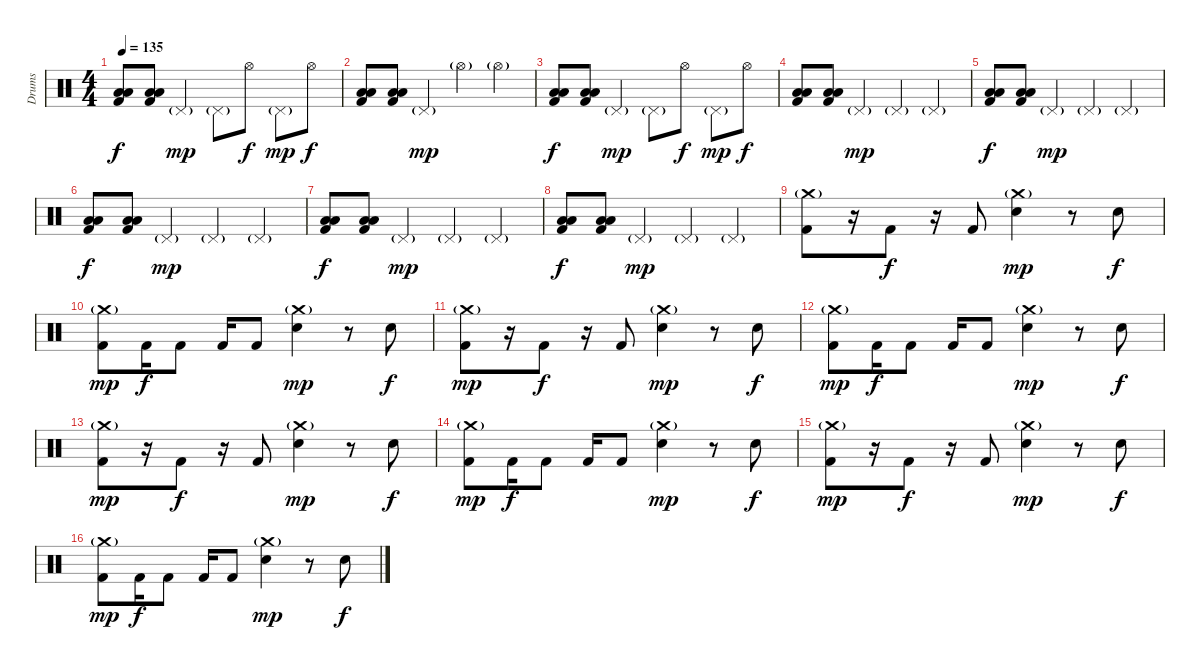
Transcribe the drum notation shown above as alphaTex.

\track ("Drums" "Drums") {instrument percussion}
\staff {score}
\articulation defaults
\ts (4 4)
\tempo 135
\clef neutral
\ks c
("Low Tom (hit)" "Low Floor Tom (hit)" "Kick (hit) 2").8{dy f} ("Low Tom (hit)" "Low Floor Tom (hit)" "Kick (hit) 2").8 "Pedal Hi-Hat (hit)"{g}.4{dy mp} "Pedal Hi-Hat (hit)"{g}.8 "Hi-Hat (open)".8{dy f} "Pedal Hi-Hat (hit)"{g}.8{dy mp} "Hi-Hat (open)".8{dy f} |
("Low Tom (hit)" "Low Floor Tom (hit)" "Kick (hit) 2").8 ("Low Tom (hit)" "Low Floor Tom (hit)" "Kick (hit) 2").8 "Pedal Hi-Hat (hit)"{g}.4{dy mp} "Hi-Hat (open)"{g}.4 "Hi-Hat (open)"{g}.4 |
("Low Tom (hit)" "Low Floor Tom (hit)" "Kick (hit) 2").8{dy f} ("Low Tom (hit)" "Low Floor Tom (hit)" "Kick (hit) 2").8 "Pedal Hi-Hat (hit)"{g}.4{dy mp} "Pedal Hi-Hat (hit)"{g}.8 "Hi-Hat (open)".8{dy f} "Pedal Hi-Hat (hit)"{g}.8{dy mp} "Hi-Hat (open)".8{dy f} |
("Low Tom (hit)" "Low Floor Tom (hit)" "Kick (hit) 2").8 ("Low Tom (hit)" "Low Floor Tom (hit)" "Kick (hit) 2").8 "Pedal Hi-Hat (hit)"{g}.4{dy mp} "Pedal Hi-Hat (hit)"{g}.4 "Pedal Hi-Hat (hit)"{g}.4 |
("Low Tom (hit)" "Low Floor Tom (hit)" "Kick (hit) 2").8{dy f} ("Low Tom (hit)" "Low Floor Tom (hit)" "Kick (hit) 2").8 "Pedal Hi-Hat (hit)"{g}.4{dy mp} "Pedal Hi-Hat (hit)"{g}.4 "Pedal Hi-Hat (hit)"{g}.4 |
("Low Tom (hit)" "Low Floor Tom (hit)" "Kick (hit) 2").8{dy f} ("Low Tom (hit)" "Low Floor Tom (hit)" "Kick (hit) 2").8 "Pedal Hi-Hat (hit)"{g}.4{dy mp} "Pedal Hi-Hat (hit)"{g}.4 "Pedal Hi-Hat (hit)"{g}.4 |
("Low Tom (hit)" "Low Floor Tom (hit)" "Kick (hit) 2").8{dy f} ("Low Tom (hit)" "Low Floor Tom (hit)" "Kick (hit) 2").8 "Pedal Hi-Hat (hit)"{g}.4{dy mp} "Pedal Hi-Hat (hit)"{g}.4 "Pedal Hi-Hat (hit)"{g}.4 |
("Low Tom (hit)" "Low Floor Tom (hit)" "Kick (hit) 2").8{dy f} ("Low Tom (hit)" "Low Floor Tom (hit)" "Kick (hit) 2").8 "Pedal Hi-Hat (hit)"{g}.4{dy mp} "Pedal Hi-Hat (hit)"{g}.4 "Pedal Hi-Hat (hit)"{g}.4 |
("Crash medium (hit)"{g} "Kick (hit) 2").8 r.16 "Kick (hit) 2".8{dy f} r.16 "Kick (hit) 2".8 ("Crash medium (hit)"{g} "Electric Snare (hit)").4{dy mp} r.8 "Electric Snare (hit)".8{dy f} |
("Crash medium (hit)"{g} "Kick (hit) 2").8{dy mp} "Kick (hit) 2".16{dy f} "Kick (hit) 2".8 "Kick (hit) 2".16 "Kick (hit) 2".8 ("Crash medium (hit)"{g} "Electric Snare (hit)").4{dy mp} r.8 "Electric Snare (hit)".8{dy f} |
("Crash medium (hit)"{g} "Kick (hit) 2").8{dy mp} r.16 "Kick (hit) 2".8{dy f} r.16 "Kick (hit) 2".8 ("Crash medium (hit)"{g} "Electric Snare (hit)").4{dy mp} r.8 "Electric Snare (hit)".8{dy f} |
("Crash medium (hit)"{g} "Kick (hit) 2").8{dy mp} "Kick (hit) 2".16{dy f} "Kick (hit) 2".8 "Kick (hit) 2".16 "Kick (hit) 2".8 ("Crash medium (hit)"{g} "Electric Snare (hit)").4{dy mp} r.8 "Electric Snare (hit)".8{dy f} |
("Crash medium (hit)"{g} "Kick (hit) 2").8{dy mp} r.16 "Kick (hit) 2".8{dy f} r.16 "Kick (hit) 2".8 ("Crash medium (hit)"{g} "Electric Snare (hit)").4{dy mp} r.8 "Electric Snare (hit)".8{dy f} |
("Crash medium (hit)"{g} "Kick (hit) 2").8{dy mp} "Kick (hit) 2".16{dy f} "Kick (hit) 2".8 "Kick (hit) 2".16 "Kick (hit) 2".8 ("Crash medium (hit)"{g} "Electric Snare (hit)").4{dy mp} r.8 "Electric Snare (hit)".8{dy f} |
("Crash medium (hit)"{g} "Kick (hit) 2").8{dy mp} r.16 "Kick (hit) 2".8{dy f} r.16 "Kick (hit) 2".8 ("Crash medium (hit)"{g} "Electric Snare (hit)").4{dy mp} r.8 "Electric Snare (hit)".8{dy f} |
("Crash medium (hit)"{g} "Kick (hit) 2").8{dy mp} "Kick (hit) 2".16{dy f} "Kick (hit) 2".8 "Kick (hit) 2".16 "Kick (hit) 2".8 ("Crash medium (hit)"{g} "Electric Snare (hit)").4{dy mp} r.8 "Electric Snare (hit)".8{dy f}
